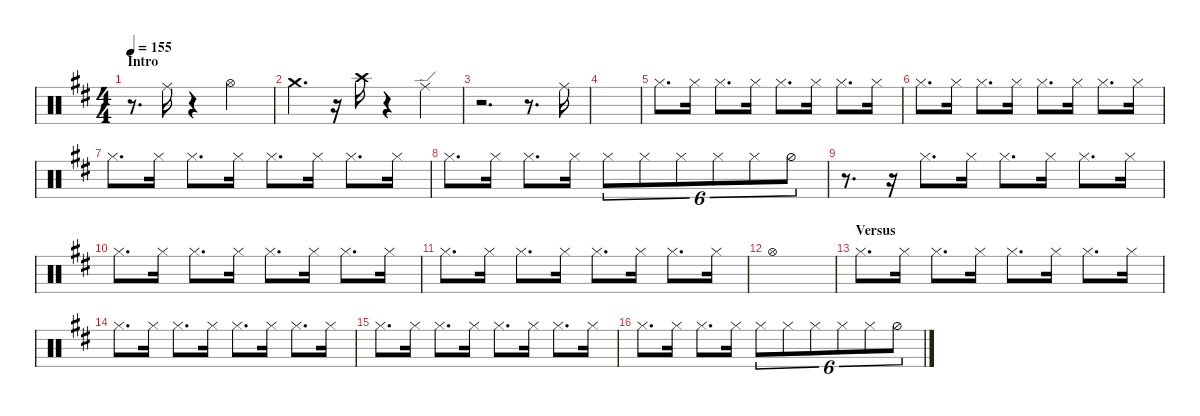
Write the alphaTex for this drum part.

\hideDynamics
\bracketExtendMode nobrackets
\singleTrackTrackNamePolicy hidden
\multiTrackTrackNamePolicy hidden
\otherSystemsTrackNameOrientation horizontal
\track ("Perc" "Drums") {instrument percussion}
\staff {score}
\articulation defaults
\ts (4 4)
\section ("" "Intro")
\tempo 155
\clef neutral
\ks d
r.8{d dy mp beam Down} "Ride (middle)"{acc forcenatural}.16{beam Down} r.4{beam Down} "Hi-Hat (open)"{acc forcenatural}.2{beam Down} |
"Crash medium (hit)"{acc forcenatural}.4{d dy mf beam Down} r.16{beam Down} "Crash high (hit)"{acc forcenatural}.16{dy mp beam Down} r.4{beam Down} "Ride (edge)"{acc forcenatural}.4{beam Down} |
r.2{d beam Down} r.8{d beam Down} "Ride (middle)"{acc forcenatural}.16{beam Down} |
|
"Hi-Hat (closed)"{acc forcenatural}.8{d dy p beam Down} "Hi-Hat (closed)"{acc forcenatural}.16{beam Down} "Hi-Hat (closed)"{acc forcenatural}.8{d beam Down} "Hi-Hat (closed)"{acc forcenatural}.16{dy mp beam Down} "Hi-Hat (closed)"{acc forcenatural}.8{d dy p beam Down} "Hi-Hat (closed)"{acc forcenatural}.16{beam Down} "Hi-Hat (closed)"{acc forcenatural}.8{d beam Down} "Hi-Hat (closed)"{acc forcenatural}.16{beam Down} |
"Hi-Hat (closed)"{acc forcenatural}.8{d dy mp beam Down} "Hi-Hat (closed)"{acc forcenatural}.16{dy p beam Down} "Hi-Hat (closed)"{acc forcenatural}.8{d beam Down} "Hi-Hat (closed)"{acc forcenatural}.16{dy mf beam Down} "Hi-Hat (closed)"{acc forcenatural}.8{d dy p beam Down} "Hi-Hat (closed)"{acc forcenatural}.16{beam Down} "Hi-Hat (closed)"{acc forcenatural}.8{d beam Down} "Hi-Hat (closed)"{acc forcenatural}.16{beam Down} |
"Hi-Hat (closed)"{acc forcenatural}.8{d beam Down} "Hi-Hat (closed)"{acc forcenatural}.16{beam Down} "Hi-Hat (closed)"{acc forcenatural}.8{d beam Down} "Hi-Hat (closed)"{acc forcenatural}.16{dy mp beam Down} "Hi-Hat (closed)"{acc forcenatural}.8{d dy p beam Down} "Hi-Hat (closed)"{acc forcenatural}.16{beam Down} "Hi-Hat (closed)"{acc forcenatural}.8{d beam Down} "Hi-Hat (closed)"{acc forcenatural}.16{beam Down} |
"Hi-Hat (closed)"{acc forcenatural}.8{d dy mp beam Down} "Hi-Hat (closed)"{acc forcenatural}.16{dy p beam Down} "Hi-Hat (closed)"{acc forcenatural}.8{d beam Down} "Hi-Hat (closed)"{acc forcenatural}.16{dy mf beam Down} "Hi-Hat (closed)"{acc forcenatural}.8{tu (6 4) dy mp beam Down} "Hi-Hat (closed)"{acc forcenatural}.8{tu (6 4) dy p beam Down} "Hi-Hat (closed)"{acc forcenatural}.8{tu (6 4) beam Down} "Hi-Hat (closed)"{acc forcenatural}.8{tu (6 4) beam Down} "Hi-Hat (closed)"{acc forcenatural}.8{tu (6 4) beam Down} "Hi-Hat (half)"{acc forcenatural}.8{tu (6 4) beam Down} |
r.8{d beam Down} r.16{beam Down} "Hi-Hat (closed)"{acc forcenatural}.8{d beam Down} "Hi-Hat (closed)"{acc forcenatural}.16{dy mp beam Down} "Hi-Hat (closed)"{acc forcenatural}.8{d dy p beam Down} "Hi-Hat (closed)"{acc forcenatural}.16{beam Down} "Hi-Hat (closed)"{acc forcenatural}.8{d beam Down} "Hi-Hat (closed)"{acc forcenatural}.16{beam Down} |
"Hi-Hat (closed)"{acc forcenatural}.8{d dy mp beam Down} "Hi-Hat (closed)"{acc forcenatural}.16{dy p beam Down} "Hi-Hat (closed)"{acc forcenatural}.8{d beam Down} "Hi-Hat (closed)"{acc forcenatural}.16{dy mf beam Down} "Hi-Hat (closed)"{acc forcenatural}.8{d dy p beam Down} "Hi-Hat (closed)"{acc forcenatural}.16{beam Down} "Hi-Hat (closed)"{acc forcenatural}.8{d beam Down} "Hi-Hat (closed)"{acc forcenatural}.16{beam Down} |
"Hi-Hat (closed)"{acc forcenatural}.8{d dy mf beam Down} "Hi-Hat (closed)"{acc forcenatural}.16{dy mp beam Down} "Hi-Hat (closed)"{acc forcenatural}.8{d dy mf beam Down} "Hi-Hat (closed)"{acc forcenatural}.16{dy mp beam Down} "Hi-Hat (closed)"{acc forcenatural}.8{d dy mf beam Down} "Hi-Hat (closed)"{acc forcenatural}.16{dy mp beam Down} "Hi-Hat (closed)"{acc forcenatural}.8{d dy mf beam Down} "Hi-Hat (closed)"{acc forcenatural}.16{dy mp beam Down} |
"Hi-Hat (open)"{acc forcenatural}.1{dy mf beam Down} |
\section ("" "Versus")
"Hi-Hat (closed)"{acc forcenatural}.8{d dy p beam Down} "Hi-Hat (closed)"{acc forcenatural}.16{beam Down} "Hi-Hat (closed)"{acc forcenatural}.8{d beam Down} "Hi-Hat (closed)"{acc forcenatural}.16{dy mp beam Down} "Hi-Hat (closed)"{acc forcenatural}.8{d dy p beam Down} "Hi-Hat (closed)"{acc forcenatural}.16{beam Down} "Hi-Hat (closed)"{acc forcenatural}.8{d beam Down} "Hi-Hat (closed)"{acc forcenatural}.16{beam Down} |
"Hi-Hat (closed)"{acc forcenatural}.8{d dy mp beam Down} "Hi-Hat (closed)"{acc forcenatural}.16{dy p beam Down} "Hi-Hat (closed)"{acc forcenatural}.8{d beam Down} "Hi-Hat (closed)"{acc forcenatural}.16{dy mf beam Down} "Hi-Hat (closed)"{acc forcenatural}.8{d dy p beam Down} "Hi-Hat (closed)"{acc forcenatural}.16{beam Down} "Hi-Hat (closed)"{acc forcenatural}.8{d beam Down} "Hi-Hat (closed)"{acc forcenatural}.16{beam Down} |
"Hi-Hat (closed)"{acc forcenatural}.8{d beam Down} "Hi-Hat (closed)"{acc forcenatural}.16{beam Down} "Hi-Hat (closed)"{acc forcenatural}.8{d beam Down} "Hi-Hat (closed)"{acc forcenatural}.16{dy mp beam Down} "Hi-Hat (closed)"{acc forcenatural}.8{d dy p beam Down} "Hi-Hat (closed)"{acc forcenatural}.16{beam Down} "Hi-Hat (closed)"{acc forcenatural}.8{d beam Down} "Hi-Hat (closed)"{acc forcenatural}.16{beam Down} |
"Hi-Hat (closed)"{acc forcenatural}.8{d dy mp beam Down} "Hi-Hat (closed)"{acc forcenatural}.16{dy p beam Down} "Hi-Hat (closed)"{acc forcenatural}.8{d beam Down} "Hi-Hat (closed)"{acc forcenatural}.16{dy mf beam Down} "Hi-Hat (closed)"{acc forcenatural}.8{tu (6 4) dy mp beam Down} "Hi-Hat (closed)"{acc forcenatural}.8{tu (6 4) dy p beam Down} "Hi-Hat (closed)"{acc forcenatural}.8{tu (6 4) beam Down} "Hi-Hat (closed)"{acc forcenatural}.8{tu (6 4) beam Down} "Hi-Hat (closed)"{acc forcenatural}.8{tu (6 4) beam Down} "Hi-Hat (half)"{acc forcenatural}.8{tu (6 4) beam Down}
